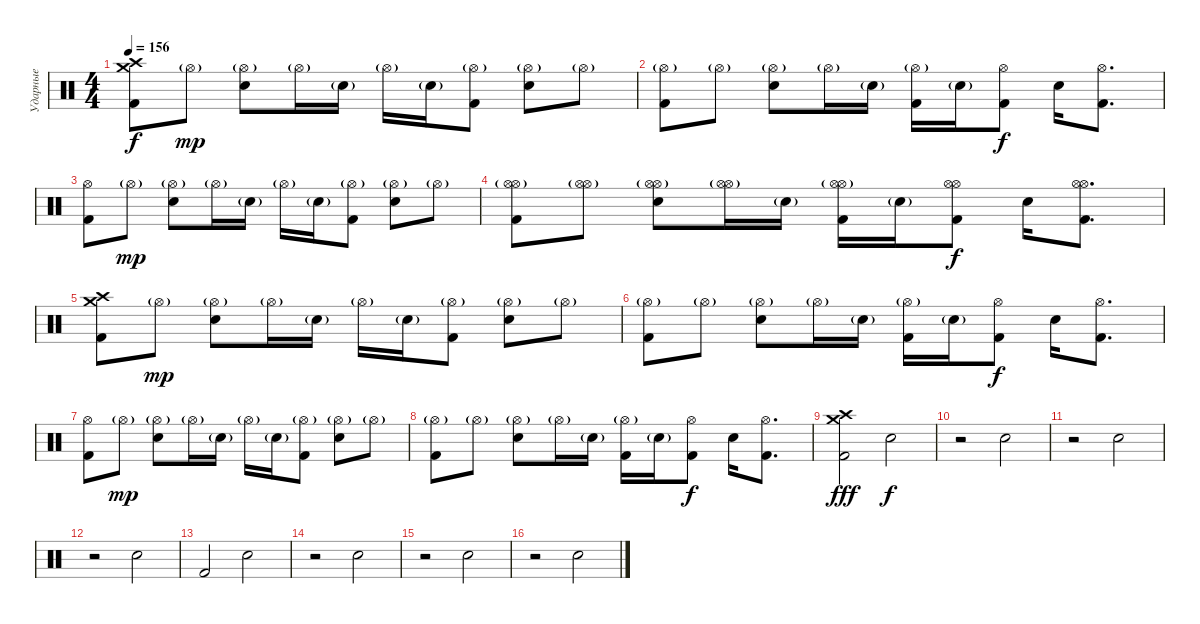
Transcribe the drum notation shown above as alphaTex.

\track ("Ударные" "Ударные") {instrument percussion}
\staff {score}
\articulation defaults
\ts (4 4)
\tempo 156
\clef neutral
\ks c
("Crash high (hit)" "Crash medium (hit)" "Kick (hit) 2").8{dy f} "Hi-Hat (open)"{g}.8{dy mp} ("Hi-Hat (open)"{g} "Electric Snare (hit)").8 "Hi-Hat (open)"{g}.16 "Electric Snare (hit)"{g}.16 "Hi-Hat (open)"{g}.16 "Electric Snare (hit)"{g}.16 ("Hi-Hat (open)"{g} "Kick (hit) 2").8 ("Hi-Hat (open)"{g} "Electric Snare (hit)").8 "Hi-Hat (open)"{g}.8 |
("Hi-Hat (open)"{g} "Kick (hit) 2").8 "Hi-Hat (open)"{g}.8 ("Hi-Hat (open)"{g} "Electric Snare (hit)").8 "Hi-Hat (open)"{g}.16 "Electric Snare (hit)"{g}.16 ("Hi-Hat (open)"{g} "Kick (hit) 2").16 "Electric Snare (hit)"{g}.16 ("Hi-Hat (open)" "Kick (hit) 2").8{dy f} "Electric Snare (hit)".16 ("Hi-Hat (open)" "Kick (hit) 2").8{d} |
("Hi-Hat (open)" "Kick (hit) 2").8 "Hi-Hat (open)"{g}.8{dy mp} ("Hi-Hat (open)"{g} "Electric Snare (hit)").8 "Hi-Hat (open)"{g}.16 "Electric Snare (hit)"{g}.16 "Hi-Hat (open)"{g}.16 "Electric Snare (hit)"{g}.16 ("Hi-Hat (open)"{g} "Kick (hit) 2").8 ("Hi-Hat (open)"{g} "Electric Snare (hit)").8 "Hi-Hat (open)"{g}.8 |
("Hi-Hat (open)"{g} "Hi-Hat (open)"{g} "Kick (hit) 2").8 ("Hi-Hat (open)"{g} "Hi-Hat (open)"{g}).8 ("Hi-Hat (open)"{g} "Hi-Hat (open)"{g} "Electric Snare (hit)").8 ("Hi-Hat (open)"{g} "Hi-Hat (open)"{g}).16 "Electric Snare (hit)"{g}.16 ("Hi-Hat (open)"{g} "Hi-Hat (open)"{g} "Kick (hit) 2").16 "Electric Snare (hit)"{g}.16 ("Hi-Hat (open)" "Hi-Hat (open)" "Kick (hit) 2").8{dy f} "Electric Snare (hit)".16 ("Hi-Hat (open)" "Hi-Hat (open)" "Kick (hit) 2").8{d} |
("Crash high (hit)" "Crash medium (hit)" "Kick (hit) 2").8 "Hi-Hat (open)"{g}.8{dy mp} ("Hi-Hat (open)"{g} "Electric Snare (hit)").8 "Hi-Hat (open)"{g}.16 "Electric Snare (hit)"{g}.16 "Hi-Hat (open)"{g}.16 "Electric Snare (hit)"{g}.16 ("Hi-Hat (open)"{g} "Kick (hit) 2").8 ("Hi-Hat (open)"{g} "Electric Snare (hit)").8 "Hi-Hat (open)"{g}.8 |
("Hi-Hat (open)"{g} "Kick (hit) 2").8 "Hi-Hat (open)"{g}.8 ("Hi-Hat (open)"{g} "Electric Snare (hit)").8 "Hi-Hat (open)"{g}.16 "Electric Snare (hit)"{g}.16 ("Hi-Hat (open)"{g} "Kick (hit) 2").16 "Electric Snare (hit)"{g}.16 ("Hi-Hat (open)" "Kick (hit) 2").8{dy f} "Electric Snare (hit)".16 ("Hi-Hat (open)" "Kick (hit) 2").8{d} |
("Hi-Hat (open)" "Kick (hit) 2").8 "Hi-Hat (open)"{g}.8{dy mp} ("Hi-Hat (open)"{g} "Electric Snare (hit)").8 "Hi-Hat (open)"{g}.16 "Electric Snare (hit)"{g}.16 "Hi-Hat (open)"{g}.16 "Electric Snare (hit)"{g}.16 ("Hi-Hat (open)"{g} "Kick (hit) 2").8 ("Hi-Hat (open)"{g} "Electric Snare (hit)").8 "Hi-Hat (open)"{g}.8 |
("Hi-Hat (open)"{g} "Kick (hit) 2").8 "Hi-Hat (open)"{g}.8 ("Hi-Hat (open)"{g} "Electric Snare (hit)").8 "Hi-Hat (open)"{g}.16 "Electric Snare (hit)"{g}.16 ("Hi-Hat (open)"{g} "Kick (hit) 2").16 "Electric Snare (hit)"{g}.16 ("Hi-Hat (open)" "Kick (hit) 2").8{dy f} "Electric Snare (hit)".16 ("Hi-Hat (open)" "Kick (hit) 2").8{d} |
("Crash medium (hit)" "Crash high (hit)" "Kick (hit) 2").2{dy fff} "Electric Snare (hit)".2{dy f} |
r.2 "Electric Snare (hit)".2 |
r.2 "Electric Snare (hit)".2 |
r.2 "Electric Snare (hit)".2 |
"Kick (hit) 2".2 "Electric Snare (hit)".2 |
r.2 "Electric Snare (hit)".2 |
r.2 "Electric Snare (hit)".2 |
r.2 "Electric Snare (hit)".2
